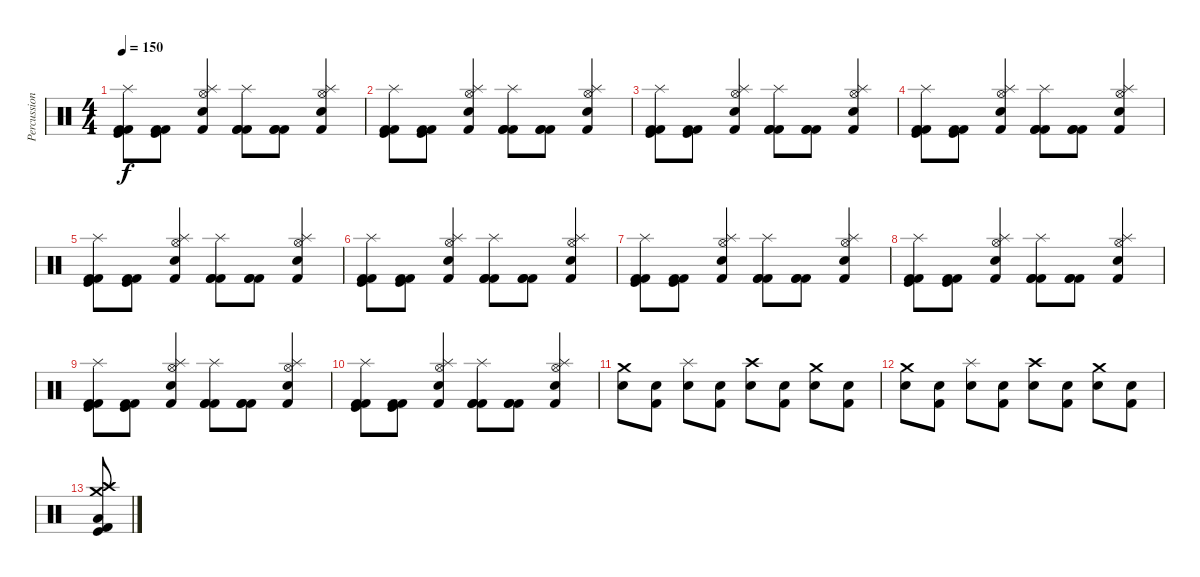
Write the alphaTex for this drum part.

\track ("Percussion" "Percussion") {instrument percussion}
\staff {score}
\articulation defaults
\ts (4 4)
\tempo 150
\clef neutral
\ks c
("Kick (hit) 2" "Kick (hit)" "Kick (hit) 2" "Splash (hit)").8{dy f} ("Kick (hit) 2" "Kick (hit)" "Kick (hit) 2").8 ("Hi-Hat (open)" "Snare (hit) 2" "Kick (hit) 2" "Splash (hit)").4 ("Kick (hit) 2" "Kick (hit) 2" "Kick (hit) 2" "Splash (hit)").8 ("Kick (hit) 2" "Kick (hit) 2" "Kick (hit) 2").8 ("Hi-Hat (open)" "Snare (hit) 2" "Kick (hit) 2" "Splash (hit)").4 |
("Kick (hit) 2" "Kick (hit)" "Kick (hit) 2" "Splash (hit)").8 ("Kick (hit) 2" "Kick (hit)" "Kick (hit) 2").8 ("Hi-Hat (open)" "Snare (hit) 2" "Kick (hit) 2" "Splash (hit)").4 ("Kick (hit) 2" "Kick (hit) 2" "Kick (hit) 2" "Splash (hit)").8 ("Kick (hit) 2" "Kick (hit) 2" "Kick (hit) 2").8 ("Hi-Hat (open)" "Snare (hit) 2" "Kick (hit) 2" "Splash (hit)").4 |
("Kick (hit) 2" "Kick (hit)" "Kick (hit) 2" "Splash (hit)").8 ("Kick (hit) 2" "Kick (hit)" "Kick (hit) 2").8 ("Hi-Hat (open)" "Snare (hit) 2" "Kick (hit) 2" "Splash (hit)").4 ("Kick (hit) 2" "Kick (hit) 2" "Kick (hit) 2" "Splash (hit)").8 ("Kick (hit) 2" "Kick (hit) 2" "Kick (hit) 2").8 ("Hi-Hat (open)" "Snare (hit) 2" "Kick (hit) 2" "Splash (hit)").4 |
("Kick (hit) 2" "Kick (hit)" "Kick (hit) 2" "Splash (hit)").8 ("Kick (hit) 2" "Kick (hit)" "Kick (hit) 2").8 ("Hi-Hat (open)" "Snare (hit) 2" "Kick (hit) 2" "Splash (hit)").4 ("Kick (hit) 2" "Kick (hit) 2" "Kick (hit) 2" "Splash (hit)").8 ("Kick (hit) 2" "Kick (hit) 2" "Kick (hit) 2").8 ("Hi-Hat (open)" "Snare (hit) 2" "Kick (hit) 2" "Splash (hit)").4 |
("Kick (hit) 2" "Kick (hit)" "Kick (hit) 2" "Splash (hit)").8 ("Kick (hit) 2" "Kick (hit)" "Kick (hit) 2").8 ("Hi-Hat (open)" "Snare (hit) 2" "Kick (hit) 2" "Splash (hit)").4 ("Kick (hit) 2" "Kick (hit) 2" "Kick (hit) 2" "Splash (hit)").8 ("Kick (hit) 2" "Kick (hit) 2" "Kick (hit) 2").8 ("Hi-Hat (open)" "Snare (hit) 2" "Kick (hit) 2" "Splash (hit)").4 |
("Kick (hit) 2" "Kick (hit)" "Kick (hit) 2" "Splash (hit)").8 ("Kick (hit) 2" "Kick (hit)" "Kick (hit) 2").8 ("Hi-Hat (open)" "Snare (hit) 2" "Kick (hit) 2" "Splash (hit)").4 ("Kick (hit) 2" "Kick (hit) 2" "Kick (hit) 2" "Splash (hit)").8 ("Kick (hit) 2" "Kick (hit) 2" "Kick (hit) 2").8 ("Hi-Hat (open)" "Snare (hit) 2" "Kick (hit) 2" "Splash (hit)").4 |
("Kick (hit) 2" "Kick (hit)" "Kick (hit) 2" "Splash (hit)").8 ("Kick (hit) 2" "Kick (hit)" "Kick (hit) 2").8 ("Hi-Hat (open)" "Snare (hit) 2" "Kick (hit) 2" "Splash (hit)").4 ("Kick (hit) 2" "Kick (hit) 2" "Kick (hit) 2" "Splash (hit)").8 ("Kick (hit) 2" "Kick (hit) 2" "Kick (hit) 2").8 ("Hi-Hat (open)" "Snare (hit) 2" "Kick (hit) 2" "Splash (hit)").4 |
("Kick (hit) 2" "Kick (hit)" "Kick (hit) 2" "Splash (hit)").8 ("Kick (hit) 2" "Kick (hit)" "Kick (hit) 2").8 ("Hi-Hat (open)" "Snare (hit) 2" "Kick (hit) 2" "Splash (hit)").4 ("Kick (hit) 2" "Kick (hit) 2" "Kick (hit) 2" "Splash (hit)").8 ("Kick (hit) 2" "Kick (hit) 2" "Kick (hit) 2").8 ("Hi-Hat (open)" "Snare (hit) 2" "Kick (hit) 2" "Splash (hit)").4 |
("Kick (hit) 2" "Kick (hit)" "Kick (hit) 2" "Splash (hit)").8 ("Kick (hit) 2" "Kick (hit)" "Kick (hit) 2").8 ("Hi-Hat (open)" "Snare (hit) 2" "Kick (hit) 2" "Splash (hit)").4 ("Kick (hit) 2" "Kick (hit) 2" "Kick (hit) 2" "Splash (hit)").8 ("Kick (hit) 2" "Kick (hit) 2" "Kick (hit) 2").8 ("Hi-Hat (open)" "Snare (hit) 2" "Kick (hit) 2" "Splash (hit)").4 |
("Kick (hit) 2" "Kick (hit)" "Kick (hit) 2" "Splash (hit)").8 ("Kick (hit) 2" "Kick (hit)" "Kick (hit) 2").8 ("Hi-Hat (open)" "Snare (hit) 2" "Kick (hit) 2" "Splash (hit)").4 ("Kick (hit) 2" "Kick (hit) 2" "Kick (hit) 2" "Splash (hit)").8 ("Kick (hit) 2" "Kick (hit) 2" "Kick (hit) 2").8 ("Hi-Hat (open)" "Snare (hit) 2" "Kick (hit) 2" "Splash (hit)").4 |
("Snare (hit) 2" "Crash medium (hit)").8 ("Snare (hit) 2" "Kick (hit) 2").8 ("Snare (hit) 2" "Splash (hit)").8 ("Snare (hit) 2" "Kick (hit) 2").8 ("Snare (hit) 2" "Crash high (hit)").8 ("Snare (hit) 2" "Kick (hit) 2").8 ("Snare (hit) 2" "Crash medium (hit)").8 ("Snare (hit) 2" "Kick (hit) 2").8 |
("Snare (hit) 2" "Crash medium (hit)").8 ("Snare (hit) 2" "Kick (hit) 2").8 ("Snare (hit) 2" "Splash (hit)").8 ("Snare (hit) 2" "Kick (hit) 2").8 ("Snare (hit) 2" "Crash high (hit)").8 ("Snare (hit) 2" "Kick (hit) 2").8 ("Snare (hit) 2" "Crash medium (hit)").8 ("Snare (hit) 2" "Kick (hit) 2").8 |
("Crash high (hit)" "Crash medium (hit)" "Kick (hit)" "Kick (hit) 2" "Low Floor Tom (hit)").8
